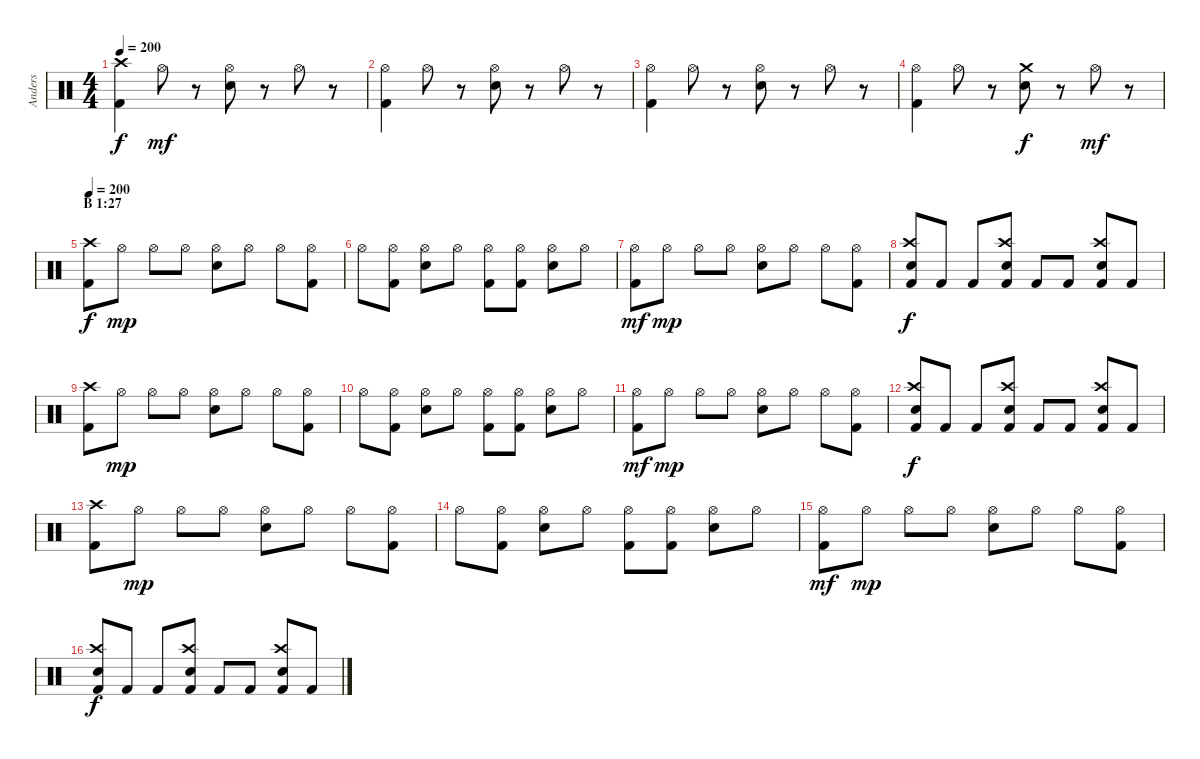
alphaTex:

\track ("Anders" "Anders") {instrument percussion}
\staff {score}
\articulation defaults
\ts (4 4)
\tempo 200
\clef neutral
\ks c
("Kick (hit) 2" "Crash high (hit)").4{dy f} "Hi-Hat (open)".8{dy mf} r.8 ("Electric Snare (hit)" "Hi-Hat (open)").8 r.8 "Hi-Hat (open)".8 r.8 |
("Kick (hit) 2" "Hi-Hat (open)").4 "Hi-Hat (open)".8 r.8 ("Electric Snare (hit)" "Hi-Hat (open)").8 r.8 "Hi-Hat (open)".8 r.8 |
("Kick (hit) 2" "Hi-Hat (open)").4 "Hi-Hat (open)".8 r.8 ("Electric Snare (hit)" "Hi-Hat (open)").8 r.8 "Hi-Hat (open)".8 r.8 |
("Kick (hit) 2" "Hi-Hat (open)").4 "Hi-Hat (open)".8 r.8 ("Electric Snare (hit)" "Crash medium (hit)").8{dy f} r.8 "Hi-Hat (open)".8{dy mf} r.8 |
\section ("" "B 1:27")
\tempo 200
("Kick (hit) 2" "Crash high (hit)").8{dy f} "Hi-Hat (open)".8{dy mp} "Hi-Hat (open)".8 "Hi-Hat (open)".8 ("Electric Snare (hit)" "Hi-Hat (open)").8 "Hi-Hat (open)".8 "Hi-Hat (open)".8 ("Kick (hit) 2" "Hi-Hat (open)").8 |
"Hi-Hat (open)".8 ("Kick (hit) 2" "Hi-Hat (open)").8 ("Electric Snare (hit)" "Hi-Hat (open)").8 "Hi-Hat (open)".8 ("Kick (hit) 2" "Hi-Hat (open)").8 ("Kick (hit) 2" "Hi-Hat (open)").8 ("Electric Snare (hit)" "Hi-Hat (open)").8 "Hi-Hat (open)".8 |
("Kick (hit) 2" "Hi-Hat (open)").8{dy mf} "Hi-Hat (open)".8{dy mp} "Hi-Hat (open)".8 "Hi-Hat (open)".8 ("Electric Snare (hit)" "Hi-Hat (open)").8 "Hi-Hat (open)".8 "Hi-Hat (open)".8 ("Kick (hit) 2" "Hi-Hat (open)").8 |
("Kick (hit) 2" "Electric Snare (hit)" "Crash high (hit)").8{dy f} "Kick (hit) 2".8 "Kick (hit) 2".8 ("Kick (hit) 2" "Electric Snare (hit)" "Crash high (hit)").8 "Kick (hit) 2".8 "Kick (hit) 2".8 ("Kick (hit) 2" "Electric Snare (hit)" "Crash high (hit)").8 "Kick (hit) 2".8 |
("Kick (hit) 2" "Crash high (hit)").8 "Hi-Hat (open)".8{dy mp} "Hi-Hat (open)".8 "Hi-Hat (open)".8 ("Electric Snare (hit)" "Hi-Hat (open)").8 "Hi-Hat (open)".8 "Hi-Hat (open)".8 ("Kick (hit) 2" "Hi-Hat (open)").8 |
"Hi-Hat (open)".8 ("Kick (hit) 2" "Hi-Hat (open)").8 ("Electric Snare (hit)" "Hi-Hat (open)").8 "Hi-Hat (open)".8 ("Kick (hit) 2" "Hi-Hat (open)").8 ("Kick (hit) 2" "Hi-Hat (open)").8 ("Electric Snare (hit)" "Hi-Hat (open)").8 "Hi-Hat (open)".8 |
("Kick (hit) 2" "Hi-Hat (open)").8{dy mf} "Hi-Hat (open)".8{dy mp} "Hi-Hat (open)".8 "Hi-Hat (open)".8 ("Electric Snare (hit)" "Hi-Hat (open)").8 "Hi-Hat (open)".8 "Hi-Hat (open)".8 ("Kick (hit) 2" "Hi-Hat (open)").8 |
("Kick (hit) 2" "Electric Snare (hit)" "Crash high (hit)").8{dy f} "Kick (hit) 2".8 "Kick (hit) 2".8 ("Kick (hit) 2" "Electric Snare (hit)" "Crash high (hit)").8 "Kick (hit) 2".8 "Kick (hit) 2".8 ("Kick (hit) 2" "Electric Snare (hit)" "Crash high (hit)").8 "Kick (hit) 2".8 |
("Kick (hit) 2" "Crash high (hit)").8 "Hi-Hat (open)".8{dy mp} "Hi-Hat (open)".8 "Hi-Hat (open)".8 ("Electric Snare (hit)" "Hi-Hat (open)").8 "Hi-Hat (open)".8 "Hi-Hat (open)".8 ("Kick (hit) 2" "Hi-Hat (open)").8 |
"Hi-Hat (open)".8 ("Kick (hit) 2" "Hi-Hat (open)").8 ("Electric Snare (hit)" "Hi-Hat (open)").8 "Hi-Hat (open)".8 ("Kick (hit) 2" "Hi-Hat (open)").8 ("Kick (hit) 2" "Hi-Hat (open)").8 ("Electric Snare (hit)" "Hi-Hat (open)").8 "Hi-Hat (open)".8 |
("Kick (hit) 2" "Hi-Hat (open)").8{dy mf} "Hi-Hat (open)".8{dy mp} "Hi-Hat (open)".8 "Hi-Hat (open)".8 ("Electric Snare (hit)" "Hi-Hat (open)").8 "Hi-Hat (open)".8 "Hi-Hat (open)".8 ("Kick (hit) 2" "Hi-Hat (open)").8 |
("Kick (hit) 2" "Electric Snare (hit)" "Crash high (hit)").8{dy f} "Kick (hit) 2".8 "Kick (hit) 2".8 ("Kick (hit) 2" "Electric Snare (hit)" "Crash high (hit)").8 "Kick (hit) 2".8 "Kick (hit) 2".8 ("Kick (hit) 2" "Electric Snare (hit)" "Crash high (hit)").8 "Kick (hit) 2".8
